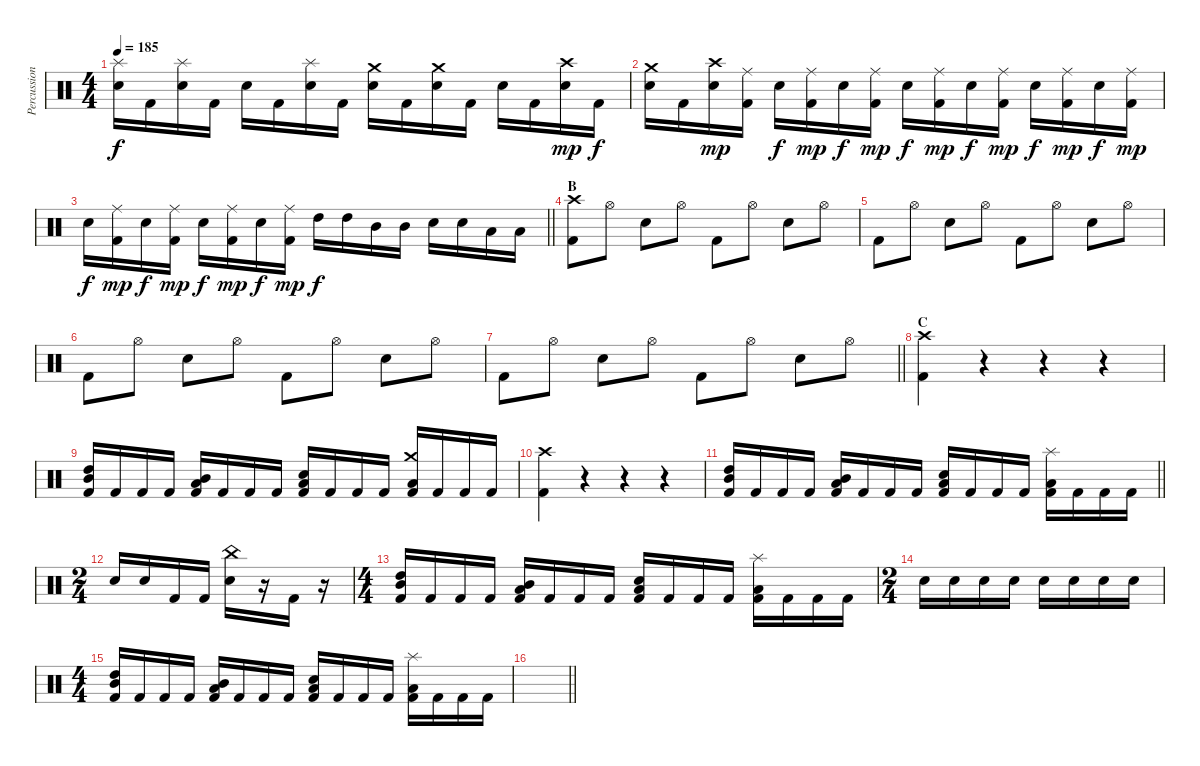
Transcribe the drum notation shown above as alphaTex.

\track ("Percussion" "Percussion") {instrument percussion}
\staff {score}
\articulation defaults
\ts (4 4)
\tempo 185
\clef neutral
\ks c
("Splash (hit)" "Snare (hit) 2").16{dy f} "Kick (hit) 2".16 ("Splash (hit)" "Snare (hit) 2").16 "Kick (hit) 2".16 "Snare (hit) 2".16 "Kick (hit) 2".16 ("Splash (hit)" "Snare (hit) 2").16 "Kick (hit) 2".16 ("Crash medium (hit)" "Snare (hit) 2").16 "Kick (hit) 2".16 ("Crash medium (hit)" "Snare (hit) 2").16 "Kick (hit) 2".16 "Snare (hit) 2".16 "Kick (hit) 2".16 ("Crash high (hit)" "Snare (hit) 2").16{dy mp} "Kick (hit) 2".16{dy f} |
("Crash medium (hit)" "Snare (hit) 2").16 "Kick (hit) 2".16 ("Crash high (hit)" "Snare (hit) 2").16{dy mp} ("Ride (middle)" "Kick (hit) 2").16 "Snare (hit) 2".16{dy f} ("Ride (middle)" "Kick (hit) 2").16{dy mp} "Snare (hit) 2".16{dy f} ("Ride (middle)" "Kick (hit) 2").16{dy mp} "Snare (hit) 2".16{dy f} ("Ride (middle)" "Kick (hit) 2").16{dy mp} "Snare (hit) 2".16{dy f} ("Ride (middle)" "Kick (hit) 2").16{dy mp} "Snare (hit) 2".16{dy f} ("Ride (middle)" "Kick (hit) 2").16{dy mp} "Snare (hit) 2".16{dy f} ("Ride (middle)" "Kick (hit) 2").16{dy mp} |
\barLineRight lightlight "Snare (hit) 2".16{dy f}
("Ride (middle)" "Kick (hit) 2").16{dy mp} "Snare (hit) 2".16{dy f} ("Ride (middle)" "Kick (hit) 2").16{dy mp} "Snare (hit) 2".16{dy f} ("Ride (middle)" "Kick (hit) 2").16{dy mp} "Snare (hit) 2".16{dy f} ("Ride (middle)" "Kick (hit) 2").16{dy mp} "High Tom (hit)".16{dy f} "High Tom (hit)".16 "Mid Tom (hit)".16 "Mid Tom (hit)".16 "Snare (hit) 2".16 "Snare (hit) 2".16 "Low Tom (hit)".16 "Low Tom (hit)".16 |
\section ("" "B")
("Crash high (hit)" "Kick (hit) 2").8 "Hi-Hat (open)".8 "Snare (hit) 2".8 "Hi-Hat (open)".8 "Kick (hit) 2".8 "Hi-Hat (open)".8 "Snare (hit) 2".8 "Hi-Hat (open)".8 |
"Kick (hit) 2".8 "Hi-Hat (open)".8 "Snare (hit) 2".8 "Hi-Hat (open)".8 "Kick (hit) 2".8 "Hi-Hat (open)".8 "Snare (hit) 2".8 "Hi-Hat (open)".8 |
"Kick (hit) 2".8 "Hi-Hat (open)".8 "Snare (hit) 2".8 "Hi-Hat (open)".8 "Kick (hit) 2".8 "Hi-Hat (open)".8 "Snare (hit) 2".8 "Hi-Hat (open)".8 |
\barLineRight lightlight "Kick (hit) 2".8 "Hi-Hat (open)".8 "Snare (hit) 2".8 "Hi-Hat (open)".8 "Kick (hit) 2".8 "Hi-Hat (open)".8 "Snare (hit) 2".8 "Hi-Hat (open)".8
|
\section ("" "C")
("Crash high (hit)" "Kick (hit) 2").4 r.4 r.4 r.4 |
("High Tom (hit)" "Mid Tom (hit)" "Kick (hit) 2").16 "Kick (hit) 2".16 "Kick (hit) 2".16 "Kick (hit) 2".16 ("Mid Tom (hit)" "Low Tom (hit)" "Kick (hit) 2").16 "Kick (hit) 2".16 "Kick (hit) 2".16 "Kick (hit) 2".16 ("Low Tom (hit)" "Snare (hit) 2" "Kick (hit) 2").16 "Kick (hit) 2".16 "Kick (hit) 2".16 "Kick (hit) 2".16 ("Crash medium (hit)" "Low Tom (hit)" "Kick (hit) 2").16 "Kick (hit) 2".16 "Kick (hit) 2".16 "Kick (hit) 2".16 |
("Crash high (hit)" "Kick (hit) 2").4 r.4 r.4 r.4 |
\barLineRight lightlight
("High Tom (hit)" "Mid Tom (hit)" "Kick (hit) 2").16 "Kick (hit) 2".16 "Kick (hit) 2".16 "Kick (hit) 2".16 ("Mid Tom (hit)" "Low Tom (hit)" "Kick (hit) 2").16 "Kick (hit) 2".16 "Kick (hit) 2".16 "Kick (hit) 2".16 ("Low Tom (hit)" "Snare (hit) 2" "Kick (hit) 2").16 "Kick (hit) 2".16 "Kick (hit) 2".16 "Kick (hit) 2".16 ("Splash (hit)" "Low Tom (hit)" "Kick (hit) 2").16 "Kick (hit) 2".16 "Kick (hit) 2".16 "Kick (hit) 2".16 |
\ts (2 4)
\section ("" "")
"Snare (hit) 2".16 "Snare (hit) 2".16 "Kick (hit) 2".16 "Kick (hit) 2".16 ("China (hit)" "Snare (hit) 2").16 r.16 "Kick (hit) 2".16 r.16 |
\ts (4 4)
("High Tom (hit)" "Mid Tom (hit)" "Kick (hit) 2").16 "Kick (hit) 2".16 "Kick (hit) 2".16 "Kick (hit) 2".16 ("Mid Tom (hit)" "Low Tom (hit)" "Kick (hit) 2").16 "Kick (hit) 2".16 "Kick (hit) 2".16 "Kick (hit) 2".16 ("Low Tom (hit)" "Snare (hit) 2" "Kick (hit) 2").16 "Kick (hit) 2".16 "Kick (hit) 2".16 "Kick (hit) 2".16 ("Splash (hit)" "Low Tom (hit)" "Kick (hit) 2").16 "Kick (hit) 2".16 "Kick (hit) 2".16 "Kick (hit) 2".16 |
\ts (2 4)
"Snare (hit) 2".16 "Snare (hit) 2".16 "Snare (hit) 2".16 "Snare (hit) 2".16 "Snare (hit) 2".16 "Snare (hit) 2".16 "Snare (hit) 2".16 "Snare (hit) 2".16 |
\ts (4 4)
("High Tom (hit)" "Mid Tom (hit)" "Kick (hit) 2").16 "Kick (hit) 2".16 "Kick (hit) 2".16 "Kick (hit) 2".16 ("Mid Tom (hit)" "Low Tom (hit)" "Kick (hit) 2").16 "Kick (hit) 2".16 "Kick (hit) 2".16 "Kick (hit) 2".16 ("Low Tom (hit)" "Snare (hit) 2" "Kick (hit) 2").16 "Kick (hit) 2".16 "Kick (hit) 2".16 "Kick (hit) 2".16 ("Splash (hit)" "Low Tom (hit)" "Kick (hit) 2").16 "Kick (hit) 2".16 "Kick (hit) 2".16 "Kick (hit) 2".16 |
\barLineRight lightlight
